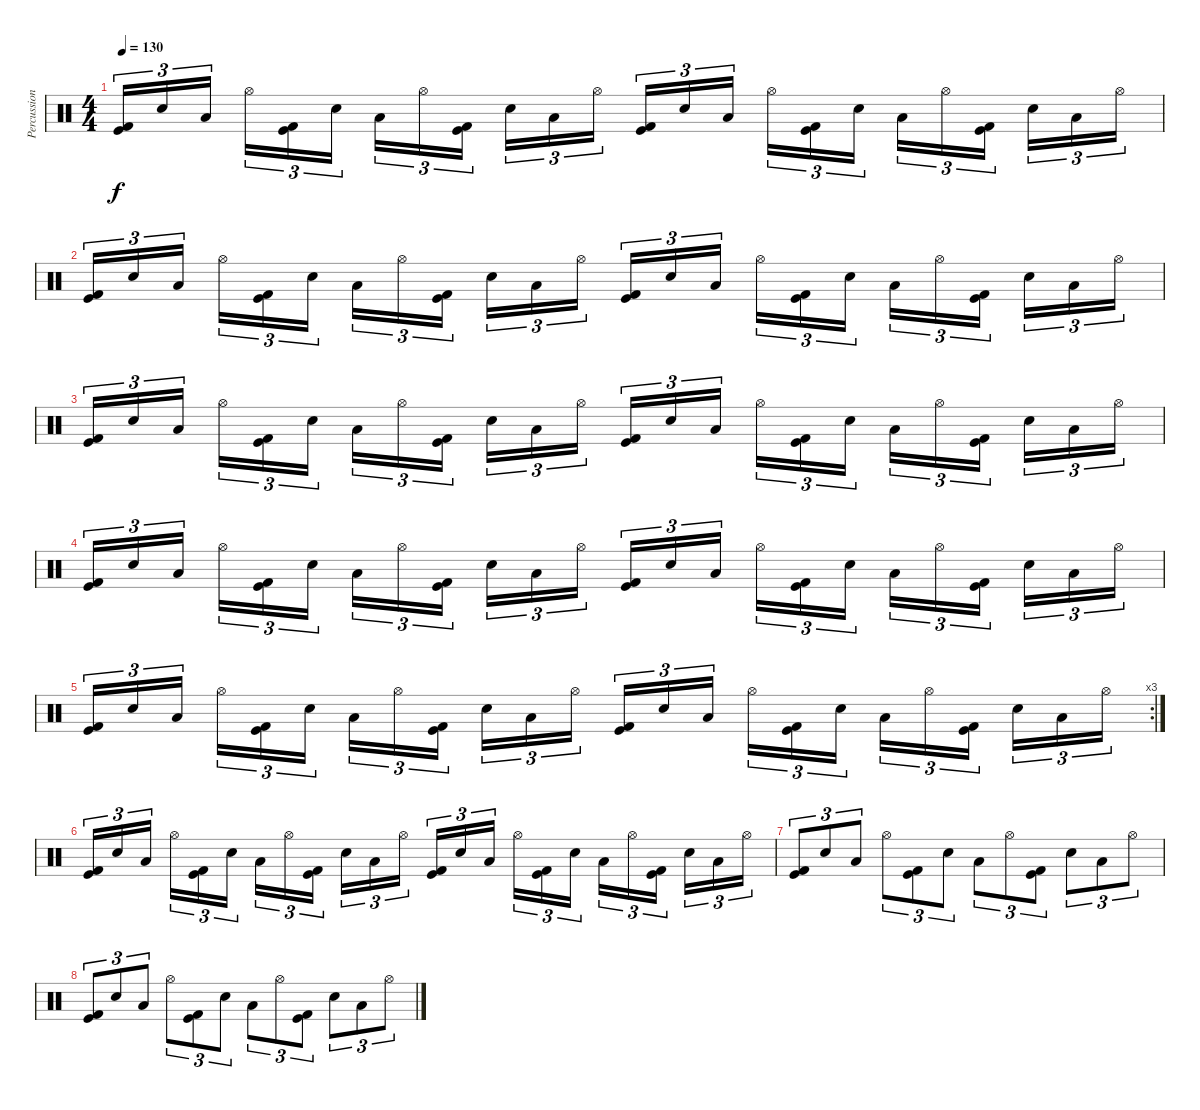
\track ("Percussion" "Percussion") {instrument percussion}
\staff {score}
\articulation defaults
\ts (4 4)
\tempo 130
\clef neutral
\ks c
("Kick (hit)" "Kick (hit) 2").16{tu (3 2) dy f} "Snare (hit) 2".16{tu (3 2)} "Low Tom (hit)".16{tu (3 2)} "Hi-Hat (open)".16{tu (3 2)} ("Kick (hit)" "Kick (hit) 2").16{tu (3 2)} "Snare (hit) 2".16{tu (3 2)} "Low Tom (hit)".16{tu (3 2)} "Hi-Hat (open)".16{tu (3 2)} ("Kick (hit)" "Kick (hit) 2").16{tu (3 2)} "Snare (hit) 2".16{tu (3 2)} "Low Tom (hit)".16{tu (3 2)} "Hi-Hat (open)".16{tu (3 2)} ("Kick (hit)" "Kick (hit) 2").16{tu (3 2)} "Snare (hit) 2".16{tu (3 2)} "Low Tom (hit)".16{tu (3 2)} "Hi-Hat (open)".16{tu (3 2)} ("Kick (hit)" "Kick (hit) 2").16{tu (3 2)} "Snare (hit) 2".16{tu (3 2)} "Low Tom (hit)".16{tu (3 2)} "Hi-Hat (open)".16{tu (3 2)} ("Kick (hit)" "Kick (hit) 2").16{tu (3 2)} "Snare (hit) 2".16{tu (3 2)} "Low Tom (hit)".16{tu (3 2)} "Hi-Hat (open)".16{tu (3 2)} |
("Kick (hit)" "Kick (hit) 2").16{tu (3 2)} "Snare (hit) 2".16{tu (3 2)} "Low Tom (hit)".16{tu (3 2)} "Hi-Hat (open)".16{tu (3 2)} ("Kick (hit)" "Kick (hit) 2").16{tu (3 2)} "Snare (hit) 2".16{tu (3 2)} "Low Tom (hit)".16{tu (3 2)} "Hi-Hat (open)".16{tu (3 2)} ("Kick (hit)" "Kick (hit) 2").16{tu (3 2)} "Snare (hit) 2".16{tu (3 2)} "Low Tom (hit)".16{tu (3 2)} "Hi-Hat (open)".16{tu (3 2)} ("Kick (hit)" "Kick (hit) 2").16{tu (3 2)} "Snare (hit) 2".16{tu (3 2)} "Low Tom (hit)".16{tu (3 2)} "Hi-Hat (open)".16{tu (3 2)} ("Kick (hit)" "Kick (hit) 2").16{tu (3 2)} "Snare (hit) 2".16{tu (3 2)} "Low Tom (hit)".16{tu (3 2)} "Hi-Hat (open)".16{tu (3 2)} ("Kick (hit)" "Kick (hit) 2").16{tu (3 2)} "Snare (hit) 2".16{tu (3 2)} "Low Tom (hit)".16{tu (3 2)} "Hi-Hat (open)".16{tu (3 2)} |
("Kick (hit)" "Kick (hit) 2").16{tu (3 2)} "Snare (hit) 2".16{tu (3 2)} "Low Tom (hit)".16{tu (3 2)} "Hi-Hat (open)".16{tu (3 2)} ("Kick (hit)" "Kick (hit) 2").16{tu (3 2)} "Snare (hit) 2".16{tu (3 2)} "Low Tom (hit)".16{tu (3 2)} "Hi-Hat (open)".16{tu (3 2)} ("Kick (hit)" "Kick (hit) 2").16{tu (3 2)} "Snare (hit) 2".16{tu (3 2)} "Low Tom (hit)".16{tu (3 2)} "Hi-Hat (open)".16{tu (3 2)} ("Kick (hit)" "Kick (hit) 2").16{tu (3 2)} "Snare (hit) 2".16{tu (3 2)} "Low Tom (hit)".16{tu (3 2)} "Hi-Hat (open)".16{tu (3 2)} ("Kick (hit)" "Kick (hit) 2").16{tu (3 2)} "Snare (hit) 2".16{tu (3 2)} "Low Tom (hit)".16{tu (3 2)} "Hi-Hat (open)".16{tu (3 2)} ("Kick (hit)" "Kick (hit) 2").16{tu (3 2)} "Snare (hit) 2".16{tu (3 2)} "Low Tom (hit)".16{tu (3 2)} "Hi-Hat (open)".16{tu (3 2)} |
("Kick (hit)" "Kick (hit) 2").16{tu (3 2)} "Snare (hit) 2".16{tu (3 2)} "Low Tom (hit)".16{tu (3 2)} "Hi-Hat (open)".16{tu (3 2)} ("Kick (hit)" "Kick (hit) 2").16{tu (3 2)} "Snare (hit) 2".16{tu (3 2)} "Low Tom (hit)".16{tu (3 2)} "Hi-Hat (open)".16{tu (3 2)} ("Kick (hit)" "Kick (hit) 2").16{tu (3 2)} "Snare (hit) 2".16{tu (3 2)} "Low Tom (hit)".16{tu (3 2)} "Hi-Hat (open)".16{tu (3 2)} ("Kick (hit)" "Kick (hit) 2").16{tu (3 2)} "Snare (hit) 2".16{tu (3 2)} "Low Tom (hit)".16{tu (3 2)} "Hi-Hat (open)".16{tu (3 2)} ("Kick (hit)" "Kick (hit) 2").16{tu (3 2)} "Snare (hit) 2".16{tu (3 2)} "Low Tom (hit)".16{tu (3 2)} "Hi-Hat (open)".16{tu (3 2)} ("Kick (hit)" "Kick (hit) 2").16{tu (3 2)} "Snare (hit) 2".16{tu (3 2)} "Low Tom (hit)".16{tu (3 2)} "Hi-Hat (open)".16{tu (3 2)} |
\rc 3
("Kick (hit)" "Kick (hit) 2").16{tu (3 2)} "Snare (hit) 2".16{tu (3 2)} "Low Tom (hit)".16{tu (3 2)} "Hi-Hat (open)".16{tu (3 2)} ("Kick (hit)" "Kick (hit) 2").16{tu (3 2)} "Snare (hit) 2".16{tu (3 2)} "Low Tom (hit)".16{tu (3 2)} "Hi-Hat (open)".16{tu (3 2)} ("Kick (hit)" "Kick (hit) 2").16{tu (3 2)} "Snare (hit) 2".16{tu (3 2)} "Low Tom (hit)".16{tu (3 2)} "Hi-Hat (open)".16{tu (3 2)} ("Kick (hit)" "Kick (hit) 2").16{tu (3 2)} "Snare (hit) 2".16{tu (3 2)} "Low Tom (hit)".16{tu (3 2)} "Hi-Hat (open)".16{tu (3 2)} ("Kick (hit)" "Kick (hit) 2").16{tu (3 2)} "Snare (hit) 2".16{tu (3 2)} "Low Tom (hit)".16{tu (3 2)} "Hi-Hat (open)".16{tu (3 2)} ("Kick (hit)" "Kick (hit) 2").16{tu (3 2)} "Snare (hit) 2".16{tu (3 2)} "Low Tom (hit)".16{tu (3 2)} "Hi-Hat (open)".16{tu (3 2)} |
("Kick (hit)" "Kick (hit) 2").16{tu (3 2)} "Snare (hit) 2".16{tu (3 2)} "Low Tom (hit)".16{tu (3 2)} "Hi-Hat (open)".16{tu (3 2)} ("Kick (hit)" "Kick (hit) 2").16{tu (3 2)} "Snare (hit) 2".16{tu (3 2)} "Low Tom (hit)".16{tu (3 2)} "Hi-Hat (open)".16{tu (3 2)} ("Kick (hit)" "Kick (hit) 2").16{tu (3 2)} "Snare (hit) 2".16{tu (3 2)} "Low Tom (hit)".16{tu (3 2)} "Hi-Hat (open)".16{tu (3 2)} ("Kick (hit)" "Kick (hit) 2").16{tu (3 2)} "Snare (hit) 2".16{tu (3 2)} "Low Tom (hit)".16{tu (3 2)} "Hi-Hat (open)".16{tu (3 2)} ("Kick (hit)" "Kick (hit) 2").16{tu (3 2)} "Snare (hit) 2".16{tu (3 2)} "Low Tom (hit)".16{tu (3 2)} "Hi-Hat (open)".16{tu (3 2)} ("Kick (hit)" "Kick (hit) 2").16{tu (3 2)} "Snare (hit) 2".16{tu (3 2)} "Low Tom (hit)".16{tu (3 2)} "Hi-Hat (open)".16{tu (3 2)} |
("Kick (hit)" "Kick (hit) 2").8{tu (3 2)} "Snare (hit) 2".8{tu (3 2)} "Low Tom (hit)".8{tu (3 2)} "Hi-Hat (open)".8{tu (3 2)} ("Kick (hit)" "Kick (hit) 2").8{tu (3 2)} "Snare (hit) 2".8{tu (3 2)} "Low Tom (hit)".8{tu (3 2)} "Hi-Hat (open)".8{tu (3 2)} ("Kick (hit)" "Kick (hit) 2").8{tu (3 2)} "Snare (hit) 2".8{tu (3 2)} "Low Tom (hit)".8{tu (3 2)} "Hi-Hat (open)".8{tu (3 2)} |
("Kick (hit)" "Kick (hit) 2").8{tu (3 2)} "Snare (hit) 2".8{tu (3 2)} "Low Tom (hit)".8{tu (3 2)} "Hi-Hat (open)".8{tu (3 2)} ("Kick (hit)" "Kick (hit) 2").8{tu (3 2)} "Snare (hit) 2".8{tu (3 2)} "Low Tom (hit)".8{tu (3 2)} "Hi-Hat (open)".8{tu (3 2)} ("Kick (hit)" "Kick (hit) 2").8{tu (3 2)} "Snare (hit) 2".8{tu (3 2)} "Low Tom (hit)".8{tu (3 2)} "Hi-Hat (open)".8{tu (3 2)}
